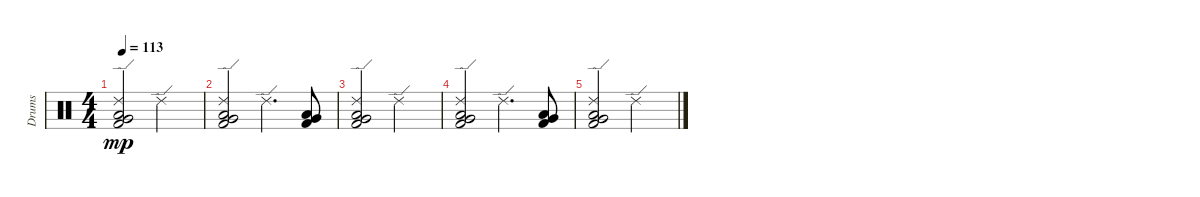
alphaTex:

\track ("Drums" "Drums") {instrument percussion}
\staff {score}
\articulation defaults
\ts (4 4)
\tempo 113
\clef neutral
\ks c
("Kick (hit) 2" "Low Floor Tom (hit)" "Very Low Tom (hit)" "Ride (edge) 2").2{dy mp} "Ride (edge) 2".2 |
("Kick (hit) 2" "Low Floor Tom (hit)" "Very Low Tom (hit)" "Ride (edge) 2").2 "Ride (edge) 2".4{d volume 13} ("Kick (hit) 2" "Low Floor Tom (hit)" "Very Low Tom (hit)").8{volume 11} |
("Kick (hit) 2" "Low Floor Tom (hit)" "Very Low Tom (hit)" "Ride (edge) 2").2{volume 11} "Ride (edge) 2".2{volume 9} |
("Kick (hit) 2" "Low Floor Tom (hit)" "Very Low Tom (hit)" "Ride (edge) 2").2{volume 6} "Ride (edge) 2".4{d volume 3} ("Kick (hit) 2" "Low Floor Tom (hit)" "Very Low Tom (hit)").8{volume 0} |
("Kick (hit) 2" "Low Floor Tom (hit)" "Very Low Tom (hit)" "Ride (edge) 2").2 "Ride (edge) 2".2
